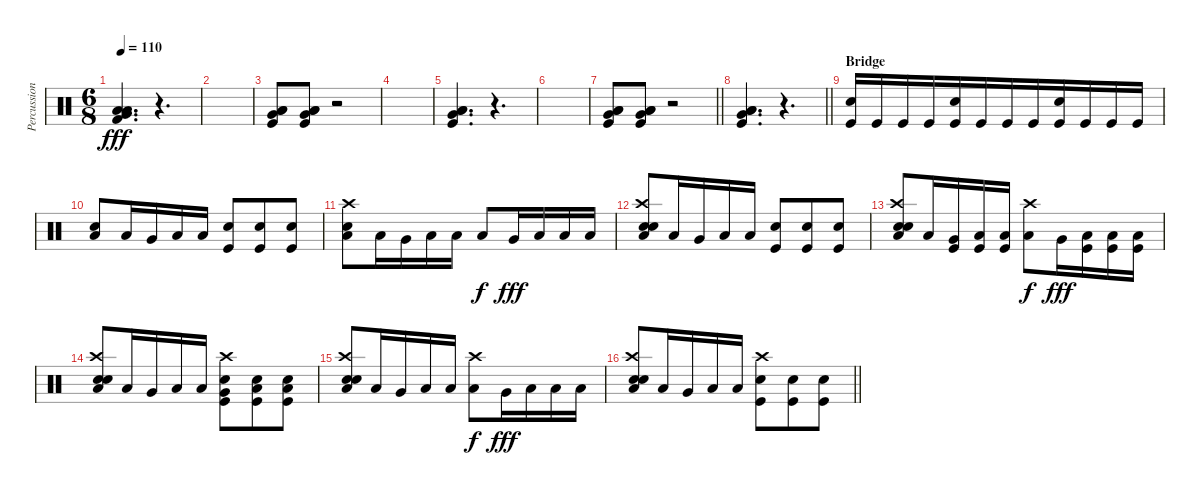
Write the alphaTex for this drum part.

\track ("Percussion" "Percussion") {instrument percussion}
\staff {score}
\articulation defaults
\ts (6 8)
\tempo 110
\clef neutral
\ks c
("Low Floor Tom (hit)" "Low Tom (hit)" "Very Low Tom (hit)" "Kick (hit) 2").4{d dy fff} r.4{d} |
|
("Low Floor Tom (hit)" "Low Tom (hit)" "Very Low Tom (hit)" "Kick (hit)").8 ("Low Floor Tom (hit)" "Low Tom (hit)" "Very Low Tom (hit)" "Kick (hit)").8 r.2 |
|
("Low Floor Tom (hit)" "Low Tom (hit)" "Very Low Tom (hit)" "Kick (hit)").4{d} r.4{d} |
|
\barLineRight lightlight
("Low Floor Tom (hit)" "Low Tom (hit)" "Very Low Tom (hit)" "Kick (hit)").8 ("Low Floor Tom (hit)" "Low Tom (hit)" "Very Low Tom (hit)" "Kick (hit)").8 r.2 |
\barLineRight lightlight
("Low Floor Tom (hit)" "Low Tom (hit)" "Very Low Tom (hit)" "Kick (hit)").4{d} r.4{d} |
\section ("" "Bridge")
("Electric Snare (hit)" "Kick (hit)").16{beam merge} "Kick (hit)".16{beam merge} "Kick (hit)".16{beam merge} "Kick (hit)".16{beam merge} ("Electric Snare (hit)" "Kick (hit)").16{beam merge} "Kick (hit)".16{beam merge} "Kick (hit)".16{beam merge} "Kick (hit)".16{beam merge} ("Electric Snare (hit)" "Kick (hit)").16{beam merge} "Kick (hit)".16{beam merge} "Kick (hit)".16{beam merge} "Kick (hit)".16 |
("Low Floor Tom (hit)" "Electric Snare (hit)").8 "Low Floor Tom (hit)".16 "Very Low Tom (hit)".16 "Low Tom (hit)".16 "Low Floor Tom (hit)".16 ("Electric Snare (hit)" "Kick (hit)").8 ("Electric Snare (hit)" "Kick (hit)").8 ("Electric Snare (hit)" "Kick (hit)").8 |
("Crash high (hit)" "Low Floor Tom (hit)" "Electric Snare (hit)").8 "Low Floor Tom (hit)".16 "Very Low Tom (hit)".16 "Low Tom (hit)".16 "Low Floor Tom (hit)".16 "Low Floor Tom (hit)".8{dy f} "Very Low Tom (hit)".16{dy fff} "Low Tom (hit)".16 "Low Floor Tom (hit)".16 "Low Floor Tom (hit)".16 |
("Snare (hit) 2" "Crash high (hit)" "Low Floor Tom (hit)" "Electric Snare (hit)").8 "Low Floor Tom (hit)".16 "Very Low Tom (hit)".16 "Low Tom (hit)".16 "Low Floor Tom (hit)".16 ("Electric Snare (hit)" "Kick (hit)").8 ("Electric Snare (hit)" "Kick (hit)").8 ("Electric Snare (hit)" "Kick (hit)").8 |
("Snare (hit) 2" "Crash high (hit)" "Low Floor Tom (hit)" "Electric Snare (hit)").8 "Low Floor Tom (hit)".16 ("Very Low Tom (hit)" "Kick (hit)").16 ("Low Tom (hit)" "Kick (hit)").16 ("Low Floor Tom (hit)" "Kick (hit)").16 ("Crash high (hit)" "Low Floor Tom (hit)").8{dy f} "Very Low Tom (hit)".16{dy fff} ("Low Tom (hit)" "Kick (hit)").16 ("Low Floor Tom (hit)" "Kick (hit)").16 ("Low Floor Tom (hit)" "Kick (hit)").16 |
("Snare (hit) 2" "Crash high (hit)" "Low Floor Tom (hit)" "Electric Snare (hit)").8 "Low Floor Tom (hit)".16 "Very Low Tom (hit)".16 "Low Tom (hit)".16 "Low Floor Tom (hit)".16 ("Crash high (hit)" "Very Low Tom (hit)" "Electric Snare (hit)" "Kick (hit)").8 ("Low Floor Tom (hit)" "Electric Snare (hit)" "Kick (hit)").8 ("Low Tom (hit)" "Electric Snare (hit)" "Kick (hit)").8 |
("Snare (hit) 2" "Crash high (hit)" "Low Floor Tom (hit)" "Electric Snare (hit)").8 "Low Floor Tom (hit)".16 "Very Low Tom (hit)".16 "Low Tom (hit)".16 "Low Floor Tom (hit)".16 ("Crash high (hit)" "Low Floor Tom (hit)").8{dy f} "Very Low Tom (hit)".16{dy fff} "Low Tom (hit)".16 "Low Floor Tom (hit)".16 "Low Floor Tom (hit)".16 |
\barLineRight lightlight
("Snare (hit) 2" "Crash high (hit)" "Low Floor Tom (hit)" "Electric Snare (hit)").8 "Low Floor Tom (hit)".16 "Very Low Tom (hit)".16 "Low Tom (hit)".16 "Low Floor Tom (hit)".16 ("Crash high (hit)" "Electric Snare (hit)" "Kick (hit)").8 ("Electric Snare (hit)" "Kick (hit)").8 ("Electric Snare (hit)" "Kick (hit)").8
